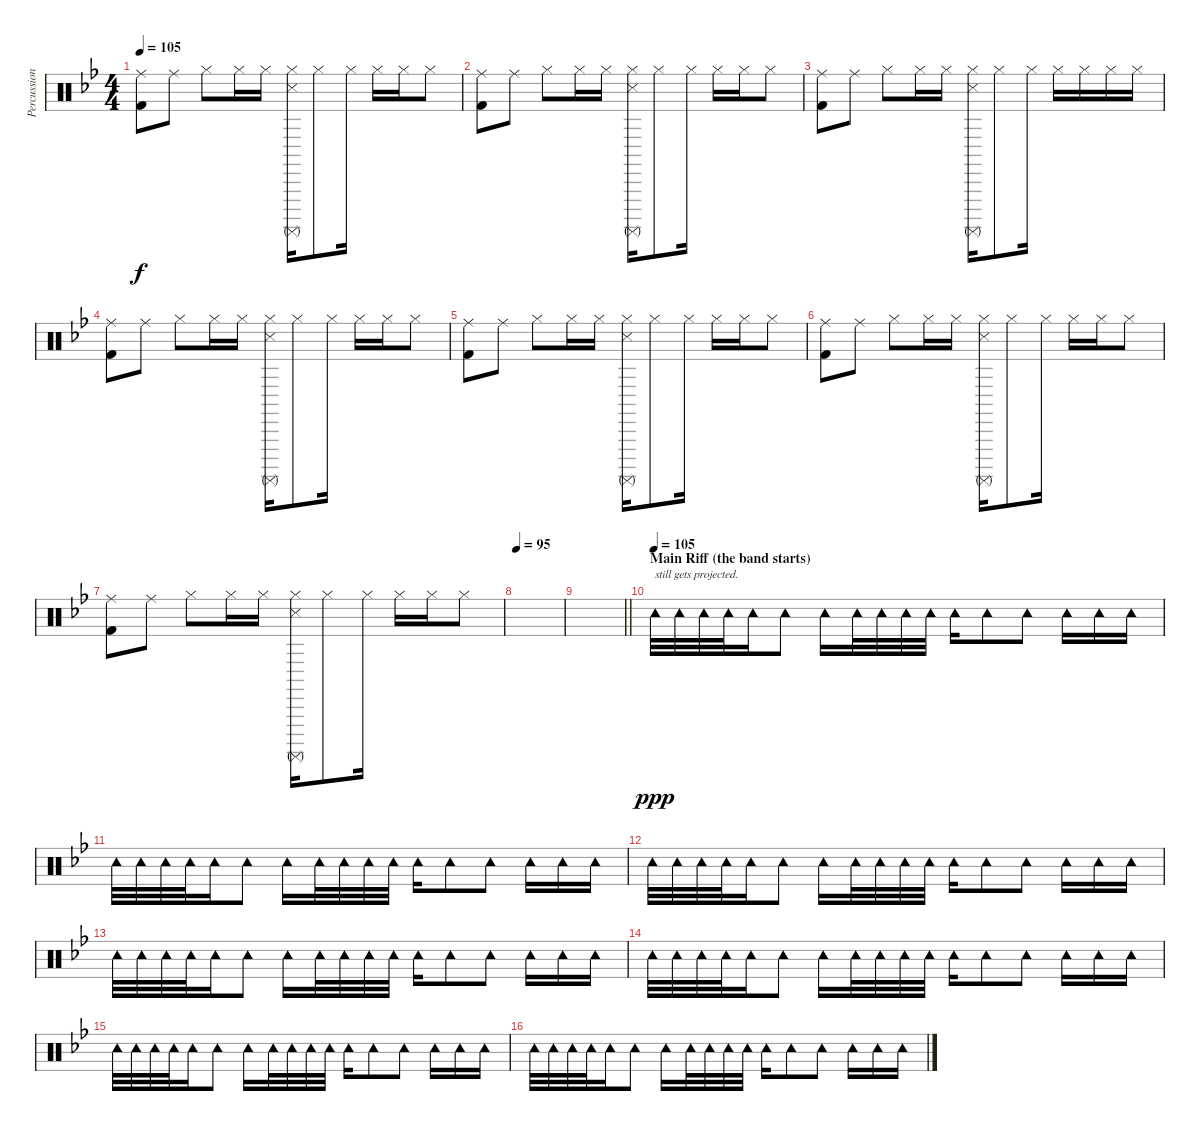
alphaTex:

\track ("Percussion" "Percussion") {instrument percussion}
\staff {score}
\articulation defaults
\ts (4 4)
\tempo 105
\clef neutral
\ks bb
("Ride (middle)" "Kick (hit) 2").8{dy f} "Ride (middle)".8 "Hi-Hat (closed)".8 "Hi-Hat (closed)".16 "Hi-Hat (closed)".16 ("Hi-Hat (closed)" "Surdo (mute)" "Snare (side stick) 3").16 "Hi-Hat (closed)".8 "Hi-Hat (closed)".16 "Hi-Hat (closed)".16 "Hi-Hat (closed)".16 "Hi-Hat (closed)".8 |
("Ride (middle)" "Kick (hit) 2").8 "Ride (middle)".8 "Hi-Hat (closed)".8 "Hi-Hat (closed)".16 "Hi-Hat (closed)".16 ("Hi-Hat (closed)" "Surdo (mute)" "Snare (side stick) 3").16 "Hi-Hat (closed)".8 "Hi-Hat (closed)".16 "Hi-Hat (closed)".16 "Hi-Hat (closed)".16 "Hi-Hat (closed)".8 |
("Ride (middle)" "Kick (hit) 2").8 "Ride (middle)".8 "Hi-Hat (closed)".8 "Hi-Hat (closed)".16 "Hi-Hat (closed)".16 ("Hi-Hat (closed)" "Surdo (mute)" "Snare (side stick) 3").16 "Hi-Hat (closed)".8 "Hi-Hat (closed)".16 "Hi-Hat (closed)".16 "Hi-Hat (closed)".16 "Hi-Hat (closed)".16 "Hi-Hat (closed)".16 |
("Ride (middle)" "Kick (hit) 2").8 "Ride (middle)".8 "Hi-Hat (closed)".8 "Hi-Hat (closed)".16 "Hi-Hat (closed)".16 ("Hi-Hat (closed)" "Surdo (mute)" "Snare (side stick) 3").16 "Hi-Hat (closed)".8 "Hi-Hat (closed)".16 "Hi-Hat (closed)".16 "Hi-Hat (closed)".16 "Hi-Hat (closed)".8 |
("Ride (middle)" "Kick (hit) 2").8 "Ride (middle)".8 "Hi-Hat (closed)".8 "Hi-Hat (closed)".16 "Hi-Hat (closed)".16 ("Hi-Hat (closed)" "Surdo (mute)" "Snare (side stick) 3").16 "Hi-Hat (closed)".8 "Hi-Hat (closed)".16 "Hi-Hat (closed)".16 "Hi-Hat (closed)".16 "Hi-Hat (closed)".8 |
("Ride (middle)" "Kick (hit) 2").8 "Ride (middle)".8 "Hi-Hat (closed)".8 "Hi-Hat (closed)".16 "Hi-Hat (closed)".16 ("Hi-Hat (closed)" "Surdo (mute)" "Snare (side stick) 3").16 "Hi-Hat (closed)".8 "Hi-Hat (closed)".16 "Hi-Hat (closed)".16 "Hi-Hat (closed)".16 "Hi-Hat (closed)".8 |
("Ride (middle)" "Kick (hit) 2").8 "Ride (middle)".8 "Hi-Hat (closed)".8 "Hi-Hat (closed)".16 "Hi-Hat (closed)".16 ("Hi-Hat (closed)" "Surdo (mute)" "Snare (side stick) 3").16 "Hi-Hat (closed)".8 "Hi-Hat (closed)".16 "Hi-Hat (closed)".16 "Hi-Hat (closed)".16 "Hi-Hat (closed)".8 |
\tempo 95
|
\barLineRight lightlight
|
\section ("" "Main Riff (the band starts)")
\tempo (105)
"Tambourine (hit)".32{txt "still gets projected." dy ppp} "Tambourine (hit)".32 "Tambourine (hit)".32 "Tambourine (hit)".32 "Tambourine (hit)".16 "Tambourine (hit)".8 "Tambourine (hit)".16 "Tambourine (hit)".32 "Tambourine (hit)".32 "Tambourine (hit)".32 "Tambourine (hit)".32 "Tambourine (hit)".16 "Tambourine (hit)".8 "Tambourine (hit)".8 "Tambourine (hit)".16 "Tambourine (hit)".16 "Tambourine (hit)".16 |
"Tambourine (hit)".32 "Tambourine (hit)".32 "Tambourine (hit)".32 "Tambourine (hit)".32 "Tambourine (hit)".16 "Tambourine (hit)".8 "Tambourine (hit)".16 "Tambourine (hit)".32 "Tambourine (hit)".32 "Tambourine (hit)".32 "Tambourine (hit)".32 "Tambourine (hit)".16 "Tambourine (hit)".8 "Tambourine (hit)".8 "Tambourine (hit)".16 "Tambourine (hit)".16 "Tambourine (hit)".16 |
"Tambourine (hit)".32 "Tambourine (hit)".32 "Tambourine (hit)".32 "Tambourine (hit)".32 "Tambourine (hit)".16 "Tambourine (hit)".8 "Tambourine (hit)".16 "Tambourine (hit)".32 "Tambourine (hit)".32 "Tambourine (hit)".32 "Tambourine (hit)".32 "Tambourine (hit)".16 "Tambourine (hit)".8 "Tambourine (hit)".8 "Tambourine (hit)".16 "Tambourine (hit)".16 "Tambourine (hit)".16 |
"Tambourine (hit)".32 "Tambourine (hit)".32 "Tambourine (hit)".32 "Tambourine (hit)".32 "Tambourine (hit)".16 "Tambourine (hit)".8 "Tambourine (hit)".16 "Tambourine (hit)".32 "Tambourine (hit)".32 "Tambourine (hit)".32 "Tambourine (hit)".32 "Tambourine (hit)".16 "Tambourine (hit)".8 "Tambourine (hit)".8 "Tambourine (hit)".16 "Tambourine (hit)".16 "Tambourine (hit)".16 |
"Tambourine (hit)".32 "Tambourine (hit)".32 "Tambourine (hit)".32 "Tambourine (hit)".32 "Tambourine (hit)".16 "Tambourine (hit)".8 "Tambourine (hit)".16 "Tambourine (hit)".32 "Tambourine (hit)".32 "Tambourine (hit)".32 "Tambourine (hit)".32 "Tambourine (hit)".16 "Tambourine (hit)".8 "Tambourine (hit)".8 "Tambourine (hit)".16 "Tambourine (hit)".16 "Tambourine (hit)".16 |
"Tambourine (hit)".32 "Tambourine (hit)".32 "Tambourine (hit)".32 "Tambourine (hit)".32 "Tambourine (hit)".16 "Tambourine (hit)".8 "Tambourine (hit)".16 "Tambourine (hit)".32 "Tambourine (hit)".32 "Tambourine (hit)".32 "Tambourine (hit)".32 "Tambourine (hit)".16 "Tambourine (hit)".8 "Tambourine (hit)".8 "Tambourine (hit)".16 "Tambourine (hit)".16 "Tambourine (hit)".16 |
"Tambourine (hit)".32 "Tambourine (hit)".32 "Tambourine (hit)".32 "Tambourine (hit)".32 "Tambourine (hit)".16 "Tambourine (hit)".8 "Tambourine (hit)".16 "Tambourine (hit)".32 "Tambourine (hit)".32 "Tambourine (hit)".32 "Tambourine (hit)".32 "Tambourine (hit)".16 "Tambourine (hit)".8 "Tambourine (hit)".8 "Tambourine (hit)".16 "Tambourine (hit)".16 "Tambourine (hit)".16
